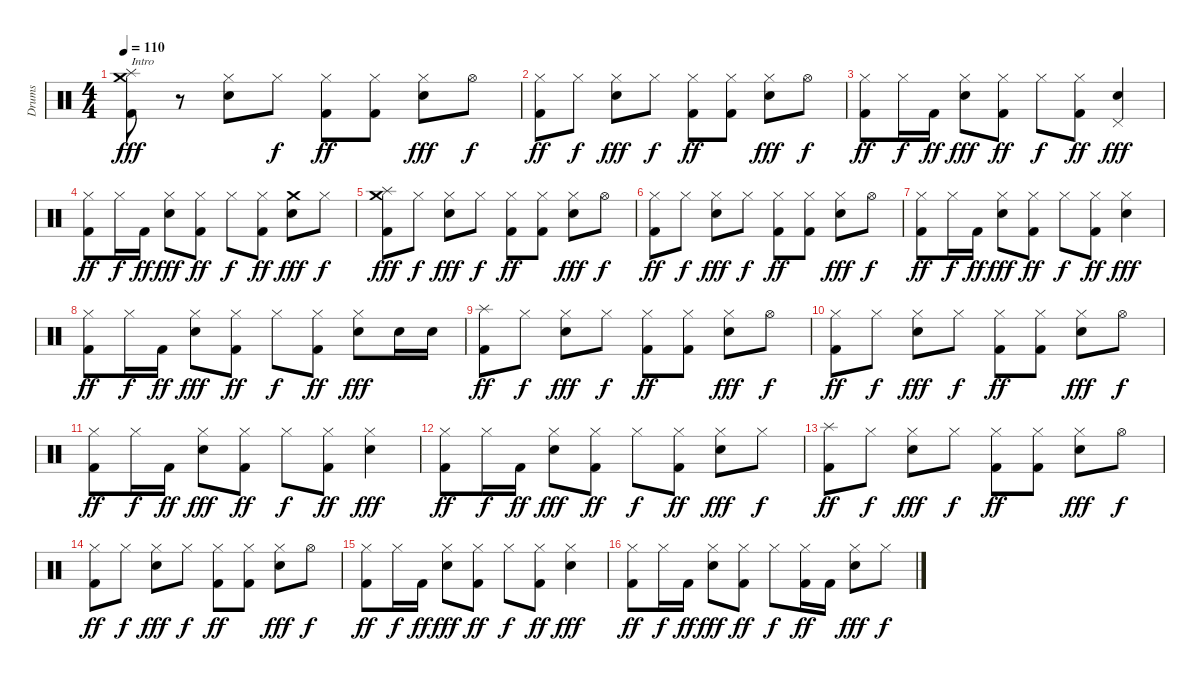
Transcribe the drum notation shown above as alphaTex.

\track ("Drums" "Drums") {instrument percussion}
\staff {score}
\articulation defaults
\ts (4 4)
\tempo 110
\clef neutral
\ks c
("Splash (hit)" "Crash medium (hit)" "Kick (hit) 2").8{txt "Intro" dy fff} r.8 ("Hi-Hat (closed)" "Electric Snare (hit)").8 "Hi-Hat (closed)".8{dy f} ("Hi-Hat (closed)" "Kick (hit) 2").8{dy ff} ("Hi-Hat (closed)" "Kick (hit) 2").8 ("Hi-Hat (closed)" "Electric Snare (hit)").8{dy fff} "Hi-Hat (open)".8{dy f} |
("Hi-Hat (closed)" "Kick (hit) 2").8{dy ff} "Hi-Hat (closed)".8{dy f} ("Hi-Hat (closed)" "Electric Snare (hit)").8{dy fff} "Hi-Hat (closed)".8{dy f} ("Hi-Hat (closed)" "Kick (hit) 2").8{dy ff} ("Hi-Hat (closed)" "Kick (hit) 2").8 ("Hi-Hat (closed)" "Electric Snare (hit)").8{dy fff} "Hi-Hat (open)".8{dy f} |
("Hi-Hat (closed)" "Kick (hit) 2").8{dy ff} "Hi-Hat (closed)".16{dy f} "Kick (hit) 2".16{dy ff} ("Hi-Hat (closed)" "Electric Snare (hit)").8{dy fff} ("Hi-Hat (closed)" "Kick (hit) 2").8{dy ff} "Hi-Hat (closed)".8{dy f} ("Hi-Hat (closed)" "Kick (hit) 2").8{dy ff} ("Pedal Hi-Hat (hit)" "Electric Snare (hit)").4{dy fff} |
("Hi-Hat (closed)" "Kick (hit) 2").8{dy ff} "Hi-Hat (closed)".16{dy f} "Kick (hit) 2".16{dy ff} ("Hi-Hat (closed)" "Electric Snare (hit)").8{dy fff} ("Hi-Hat (closed)" "Kick (hit) 2").8{dy ff} "Hi-Hat (closed)".8{dy f} ("Hi-Hat (closed)" "Kick (hit) 2").8{dy ff} ("Crash medium (hit)" "Electric Snare (hit)").8{dy fff} "Hi-Hat (closed)".8{dy f} |
("Splash (hit)" "Crash medium (hit)" "Kick (hit) 2").8{dy fff} "Hi-Hat (closed)".8{dy f} ("Hi-Hat (closed)" "Electric Snare (hit)").8{dy fff} "Hi-Hat (closed)".8{dy f} ("Hi-Hat (closed)" "Kick (hit) 2").8{dy ff} ("Hi-Hat (closed)" "Kick (hit) 2").8 ("Hi-Hat (closed)" "Electric Snare (hit)").8{dy fff} "Hi-Hat (open)".8{dy f} |
("Hi-Hat (closed)" "Kick (hit) 2").8{dy ff} "Hi-Hat (closed)".8{dy f} ("Hi-Hat (closed)" "Electric Snare (hit)").8{dy fff} "Hi-Hat (closed)".8{dy f} ("Hi-Hat (closed)" "Kick (hit) 2").8{dy ff} ("Hi-Hat (closed)" "Kick (hit) 2").8 ("Hi-Hat (closed)" "Electric Snare (hit)").8{dy fff} "Hi-Hat (open)".8{dy f} |
("Hi-Hat (closed)" "Kick (hit) 2").8{dy ff} "Hi-Hat (closed)".16{dy f} "Kick (hit) 2".16{dy ff} ("Hi-Hat (closed)" "Electric Snare (hit)").8{dy fff} ("Hi-Hat (closed)" "Kick (hit) 2").8{dy ff} "Hi-Hat (closed)".8{dy f} ("Hi-Hat (closed)" "Kick (hit) 2").8{dy ff} ("Hi-Hat (closed)" "Electric Snare (hit)").4{dy fff} |
("Hi-Hat (closed)" "Kick (hit) 2").8{dy ff} "Hi-Hat (closed)".16{dy f} "Kick (hit) 2".16{dy ff} ("Hi-Hat (closed)" "Electric Snare (hit)").8{dy fff} ("Hi-Hat (closed)" "Kick (hit) 2").8{dy ff} "Hi-Hat (closed)".8{dy f} ("Hi-Hat (closed)" "Kick (hit) 2").8{dy ff} ("Hi-Hat (closed)" "Electric Snare (hit)").8{dy fff} "Electric Snare (hit)".16 "Electric Snare (hit)".16 |
("Splash (hit)" "Kick (hit) 2").8{dy ff} "Hi-Hat (closed)".8{dy f} ("Hi-Hat (closed)" "Electric Snare (hit)").8{dy fff} "Hi-Hat (closed)".8{dy f} ("Hi-Hat (closed)" "Kick (hit) 2").8{dy ff} ("Hi-Hat (closed)" "Kick (hit) 2").8 ("Hi-Hat (closed)" "Electric Snare (hit)").8{dy fff} "Hi-Hat (open)".8{dy f} |
("Hi-Hat (closed)" "Kick (hit) 2").8{dy ff} "Hi-Hat (closed)".8{dy f} ("Hi-Hat (closed)" "Electric Snare (hit)").8{dy fff} "Hi-Hat (closed)".8{dy f} ("Hi-Hat (closed)" "Kick (hit) 2").8{dy ff} ("Hi-Hat (closed)" "Kick (hit) 2").8 ("Hi-Hat (closed)" "Electric Snare (hit)").8{dy fff} "Hi-Hat (open)".8{dy f} |
("Hi-Hat (closed)" "Kick (hit) 2").8{dy ff} "Hi-Hat (closed)".16{dy f} "Kick (hit) 2".16{dy ff} ("Hi-Hat (closed)" "Electric Snare (hit)").8{dy fff} ("Hi-Hat (closed)" "Kick (hit) 2").8{dy ff} "Hi-Hat (closed)".8{dy f} ("Hi-Hat (closed)" "Kick (hit) 2").8{dy ff} ("Hi-Hat (closed)" "Electric Snare (hit)").4{dy fff} |
("Hi-Hat (closed)" "Kick (hit) 2").8{dy ff} "Hi-Hat (closed)".16{dy f} "Kick (hit) 2".16{dy ff} ("Hi-Hat (closed)" "Electric Snare (hit)").8{dy fff} ("Hi-Hat (closed)" "Kick (hit) 2").8{dy ff} "Hi-Hat (closed)".8{dy f} ("Hi-Hat (closed)" "Kick (hit) 2").8{dy ff} ("Hi-Hat (closed)" "Electric Snare (hit)").8{dy fff} "Hi-Hat (closed)".8{dy f} |
("Splash (hit)" "Kick (hit) 2").8{dy ff} "Hi-Hat (closed)".8{dy f} ("Hi-Hat (closed)" "Electric Snare (hit)").8{dy fff} "Hi-Hat (closed)".8{dy f} ("Hi-Hat (closed)" "Kick (hit) 2").8{dy ff} ("Hi-Hat (closed)" "Kick (hit) 2").8 ("Hi-Hat (closed)" "Electric Snare (hit)").8{dy fff} "Hi-Hat (open)".8{dy f} |
("Hi-Hat (closed)" "Kick (hit) 2").8{dy ff} "Hi-Hat (closed)".8{dy f} ("Hi-Hat (closed)" "Electric Snare (hit)").8{dy fff} "Hi-Hat (closed)".8{dy f} ("Hi-Hat (closed)" "Kick (hit) 2").8{dy ff} ("Hi-Hat (closed)" "Kick (hit) 2").8 ("Hi-Hat (closed)" "Electric Snare (hit)").8{dy fff} "Hi-Hat (open)".8{dy f} |
("Hi-Hat (closed)" "Kick (hit) 2").8{dy ff} "Hi-Hat (closed)".16{dy f} "Kick (hit) 2".16{dy ff} ("Hi-Hat (closed)" "Electric Snare (hit)").8{dy fff} ("Hi-Hat (closed)" "Kick (hit) 2").8{dy ff} "Hi-Hat (closed)".8{dy f} ("Hi-Hat (closed)" "Kick (hit) 2").8{dy ff} ("Hi-Hat (closed)" "Electric Snare (hit)").4{dy fff} |
("Hi-Hat (closed)" "Kick (hit) 2").8{dy ff} "Hi-Hat (closed)".16{dy f} "Kick (hit) 2".16{dy ff} ("Hi-Hat (closed)" "Electric Snare (hit)").8{dy fff} ("Hi-Hat (closed)" "Kick (hit) 2").8{dy ff} "Hi-Hat (closed)".8{dy f} ("Hi-Hat (closed)" "Kick (hit) 2").16{dy ff} "Kick (hit) 2".16 ("Hi-Hat (closed)" "Electric Snare (hit)").8{dy fff} "Hi-Hat (closed)".8{dy f}
